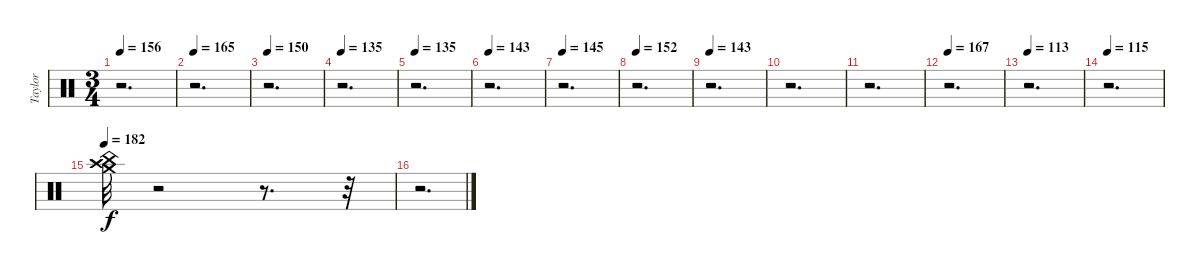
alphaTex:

\track ("Taylor" "Taylor") {instrument percussion}
\staff {score}
\articulation defaults
\ts (3 4)
\tempo 156
\clef neutral
\ks c
r.2{d dy fff} |
\tempo 165
r.2{d} |
\tempo 150
r.2{d} |
\tempo 135
r.2{d} |
\tempo 135
r.2{d} |
\tempo 143
r.2{d} |
\tempo 145
r.2{d} |
\tempo 152
r.2{d} |
\tempo 143
r.2{d} |
r.2{d} |
r.2{d} |
\tempo 167
r.2{d} |
\tempo 113
r.2{d} |
\tempo 115
r.2{d} |
\tempo 182
("Crash high (hit)" "China (hit)" "Crash medium (hit)").32{dy f} r.2 r.8{d} r.32 |
r.2{d}
